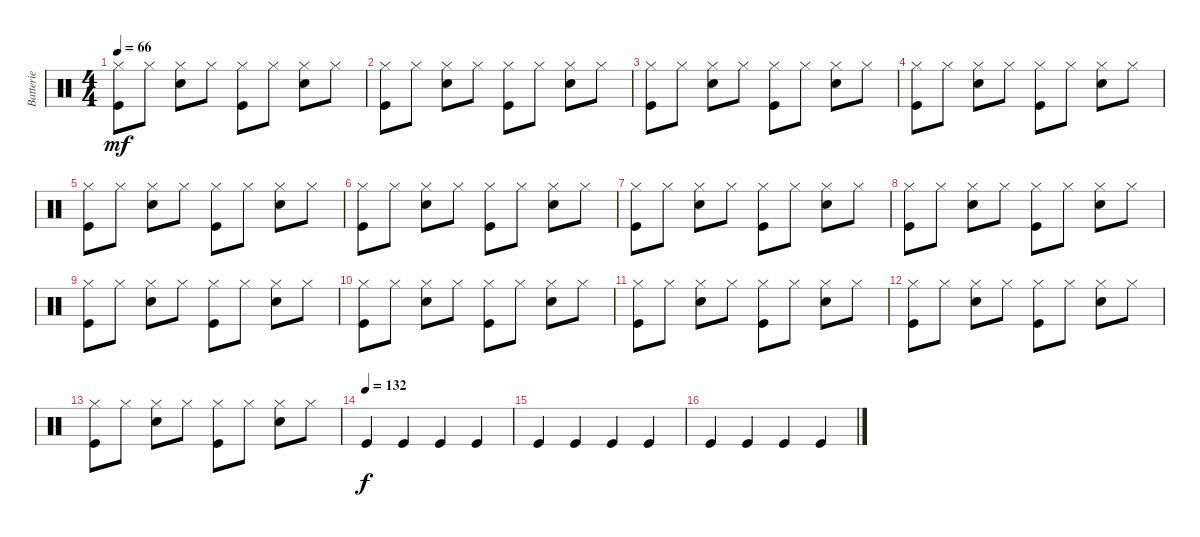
\track ("Batterie" "Batterie") {instrument percussion}
\staff {score}
\articulation defaults
\ts (4 4)
\tempo 66
\clef neutral
\ks c
("Hi-Hat (closed)" "Kick (hit)").8{dy mf} "Hi-Hat (closed)".8 ("Hi-Hat (closed)" "Snare (hit) 2").8 "Hi-Hat (closed)".8 ("Hi-Hat (closed)" "Kick (hit)").8 "Hi-Hat (closed)".8 ("Hi-Hat (closed)" "Snare (hit) 2").8 "Hi-Hat (closed)".8 |
("Hi-Hat (closed)" "Kick (hit)").8 "Hi-Hat (closed)".8 ("Hi-Hat (closed)" "Snare (hit) 2").8 "Hi-Hat (closed)".8 ("Hi-Hat (closed)" "Kick (hit)").8 "Hi-Hat (closed)".8 ("Hi-Hat (closed)" "Snare (hit) 2").8 "Hi-Hat (closed)".8 |
("Hi-Hat (closed)" "Kick (hit)").8 "Hi-Hat (closed)".8 ("Hi-Hat (closed)" "Snare (hit) 2").8 "Hi-Hat (closed)".8 ("Hi-Hat (closed)" "Kick (hit)").8 "Hi-Hat (closed)".8 ("Hi-Hat (closed)" "Snare (hit) 2").8 "Hi-Hat (closed)".8 |
("Hi-Hat (closed)" "Kick (hit)").8 "Hi-Hat (closed)".8 ("Hi-Hat (closed)" "Snare (hit) 2").8 "Hi-Hat (closed)".8 ("Hi-Hat (closed)" "Kick (hit)").8 "Hi-Hat (closed)".8 ("Hi-Hat (closed)" "Snare (hit) 2").8 "Hi-Hat (closed)".8 |
("Hi-Hat (closed)" "Kick (hit)").8 "Hi-Hat (closed)".8 ("Hi-Hat (closed)" "Snare (hit) 2").8 "Hi-Hat (closed)".8 ("Hi-Hat (closed)" "Kick (hit)").8 "Hi-Hat (closed)".8 ("Hi-Hat (closed)" "Snare (hit) 2").8 "Hi-Hat (closed)".8 |
("Hi-Hat (closed)" "Kick (hit)").8 "Hi-Hat (closed)".8 ("Hi-Hat (closed)" "Snare (hit) 2").8 "Hi-Hat (closed)".8 ("Hi-Hat (closed)" "Kick (hit)").8 "Hi-Hat (closed)".8 ("Hi-Hat (closed)" "Snare (hit) 2").8 "Hi-Hat (closed)".8 |
("Hi-Hat (closed)" "Kick (hit)").8 "Hi-Hat (closed)".8 ("Hi-Hat (closed)" "Snare (hit) 2").8 "Hi-Hat (closed)".8 ("Hi-Hat (closed)" "Kick (hit)").8 "Hi-Hat (closed)".8 ("Hi-Hat (closed)" "Snare (hit) 2").8 "Hi-Hat (closed)".8 |
("Hi-Hat (closed)" "Kick (hit)").8 "Hi-Hat (closed)".8 ("Hi-Hat (closed)" "Snare (hit) 2").8 "Hi-Hat (closed)".8 ("Hi-Hat (closed)" "Kick (hit)").8 "Hi-Hat (closed)".8 ("Hi-Hat (closed)" "Snare (hit) 2").8 "Hi-Hat (closed)".8 |
("Hi-Hat (closed)" "Kick (hit)").8 "Hi-Hat (closed)".8 ("Hi-Hat (closed)" "Snare (hit) 2").8 "Hi-Hat (closed)".8 ("Hi-Hat (closed)" "Kick (hit)").8 "Hi-Hat (closed)".8 ("Hi-Hat (closed)" "Snare (hit) 2").8 "Hi-Hat (closed)".8 |
("Hi-Hat (closed)" "Kick (hit)").8 "Hi-Hat (closed)".8 ("Hi-Hat (closed)" "Snare (hit) 2").8 "Hi-Hat (closed)".8 ("Hi-Hat (closed)" "Kick (hit)").8 "Hi-Hat (closed)".8 ("Hi-Hat (closed)" "Snare (hit) 2").8 "Hi-Hat (closed)".8 |
("Hi-Hat (closed)" "Kick (hit)").8 "Hi-Hat (closed)".8 ("Hi-Hat (closed)" "Snare (hit) 2").8 "Hi-Hat (closed)".8 ("Hi-Hat (closed)" "Kick (hit)").8 "Hi-Hat (closed)".8 ("Hi-Hat (closed)" "Snare (hit) 2").8 "Hi-Hat (closed)".8 |
("Hi-Hat (closed)" "Kick (hit)").8 "Hi-Hat (closed)".8 ("Hi-Hat (closed)" "Snare (hit) 2").8 "Hi-Hat (closed)".8 ("Hi-Hat (closed)" "Kick (hit)").8 "Hi-Hat (closed)".8 ("Hi-Hat (closed)" "Snare (hit) 2").8 "Hi-Hat (closed)".8 |
("Hi-Hat (closed)" "Kick (hit)").8 "Hi-Hat (closed)".8 ("Hi-Hat (closed)" "Snare (hit) 2").8 "Hi-Hat (closed)".8 ("Hi-Hat (closed)" "Kick (hit)").8 "Hi-Hat (closed)".8 ("Hi-Hat (closed)" "Snare (hit) 2").8 "Hi-Hat (closed)".8 |
\tempo (132)
"Kick (hit)".4{dy f} "Kick (hit)".4 "Kick (hit)".4 "Kick (hit)".4 |
"Kick (hit)".4 "Kick (hit)".4 "Kick (hit)".4 "Kick (hit)".4 |
"Kick (hit)".4 "Kick (hit)".4 "Kick (hit)".4 "Kick (hit)".4
